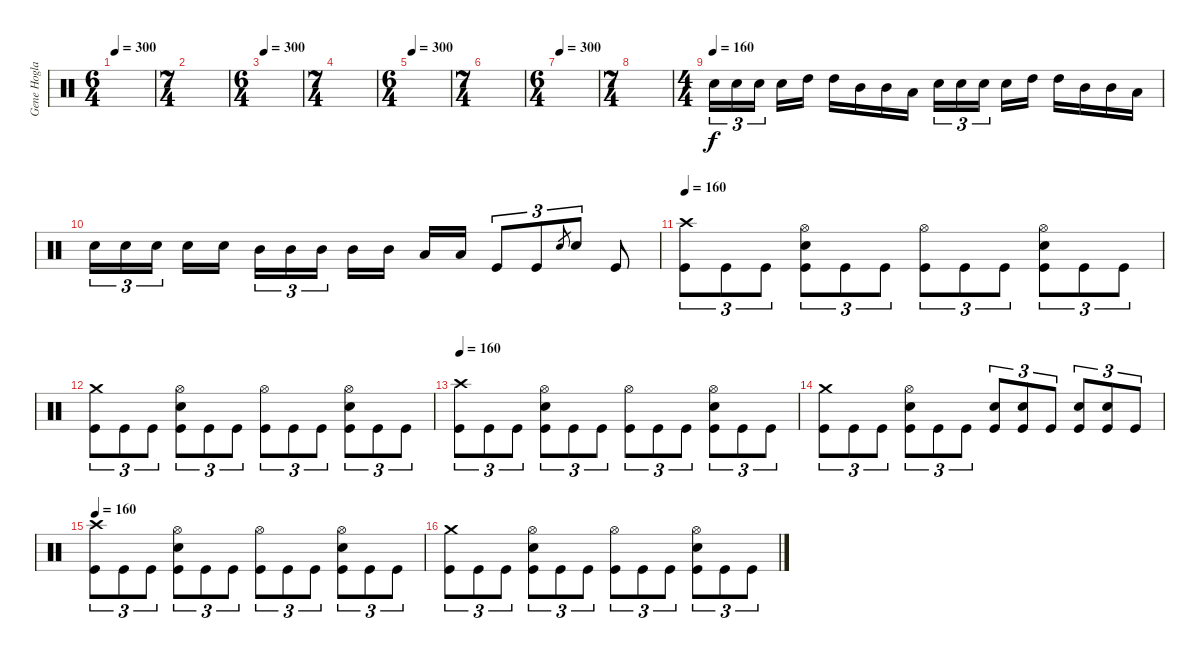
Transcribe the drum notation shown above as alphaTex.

\track ("Gene Hoglan" "Gene Hogla") {instrument percussion}
\staff {score}
\articulation defaults
\ts (6 4)
\tempo 300
\clef neutral
\ks c
|
\ts (7 4)
|
\ts (6 4)
\tempo 300
|
\ts (7 4)
|
\ts (6 4)
\tempo 300
|
\ts (7 4)
|
\ts (6 4)
\tempo 300
|
\ts (7 4)
|
\ts (4 4)
\tempo (160)
"Electric Snare (hit)".16{tu (3 2)} "Electric Snare (hit)".16{tu (3 2)} "Electric Snare (hit)".16{tu (3 2)} "Electric Snare (hit)".16 "High Tom (hit)".16 "High Tom (hit)".16 "Mid Tom (hit)".16 "Mid Tom (hit)".16 "Low Tom (hit)".16 "Electric Snare (hit)".16{tu (3 2)} "Electric Snare (hit)".16{tu (3 2)} "Electric Snare (hit)".16{tu (3 2)} "Electric Snare (hit)".16 "High Tom (hit)".16 "High Tom (hit)".16 "Mid Tom (hit)".16 "Mid Tom (hit)".16 "Low Tom (hit)".16 |
"Electric Snare (hit)".16{tu (3 2)} "Electric Snare (hit)".16{tu (3 2)} "Electric Snare (hit)".16{tu (3 2)} "Electric Snare (hit)".16 "Electric Snare (hit)".16 "Mid Tom (hit)".16{tu (3 2)} "Mid Tom (hit)".16{tu (3 2)} "Mid Tom (hit)".16{tu (3 2)} "Mid Tom (hit)".16 "Mid Tom (hit)".16 "Low Tom (hit)".16 "Low Tom (hit)".16 "Kick (hit)".8{tu (3 2)} "Kick (hit)".8{tu (3 2)} "Electric Snare (hit)".8{gr} "Electric Snare (hit)".8{tu (3 2)} "Kick (hit)".8 |
\tempo 160
("Crash high (hit)" "Kick (hit)").8{tu (3 2)} "Kick (hit)".8{tu (3 2)} "Kick (hit)".8{tu (3 2)} ("Hi-Hat (open)" "Electric Snare (hit)" "Kick (hit)").8{tu (3 2)} "Kick (hit)".8{tu (3 2)} "Kick (hit)".8{tu (3 2)} ("Hi-Hat (open)" "Kick (hit)").8{tu (3 2)} "Kick (hit)".8{tu (3 2)} "Kick (hit)".8{tu (3 2)} ("Hi-Hat (open)" "Electric Snare (hit)" "Kick (hit)").8{tu (3 2)} "Kick (hit)".8{tu (3 2)} "Kick (hit)".8{tu (3 2)} |
("Crash medium (hit)" "Kick (hit)").8{tu (3 2)} "Kick (hit)".8{tu (3 2)} "Kick (hit)".8{tu (3 2)} ("Hi-Hat (open)" "Electric Snare (hit)" "Kick (hit)").8{tu (3 2)} "Kick (hit)".8{tu (3 2)} "Kick (hit)".8{tu (3 2)} ("Hi-Hat (open)" "Kick (hit)").8{tu (3 2)} "Kick (hit)".8{tu (3 2)} "Kick (hit)".8{tu (3 2)} ("Hi-Hat (open)" "Electric Snare (hit)" "Kick (hit)").8{tu (3 2)} "Kick (hit)".8{tu (3 2)} "Kick (hit)".8{tu (3 2)} |
\tempo 160
("Crash high (hit)" "Kick (hit)").8{tu (3 2)} "Kick (hit)".8{tu (3 2)} "Kick (hit)".8{tu (3 2)} ("Hi-Hat (open)" "Electric Snare (hit)" "Kick (hit)").8{tu (3 2)} "Kick (hit)".8{tu (3 2)} "Kick (hit)".8{tu (3 2)} ("Hi-Hat (open)" "Kick (hit)").8{tu (3 2)} "Kick (hit)".8{tu (3 2)} "Kick (hit)".8{tu (3 2)} ("Hi-Hat (open)" "Electric Snare (hit)" "Kick (hit)").8{tu (3 2)} "Kick (hit)".8{tu (3 2)} "Kick (hit)".8{tu (3 2)} |
("Crash medium (hit)" "Kick (hit)").8{tu (3 2)} "Kick (hit)".8{tu (3 2)} "Kick (hit)".8{tu (3 2)} ("Hi-Hat (open)" "Electric Snare (hit)" "Kick (hit)").8{tu (3 2)} "Kick (hit)".8{tu (3 2)} "Kick (hit)".8{tu (3 2)} ("Electric Snare (hit)" "Kick (hit)").8{tu (3 2)} ("Electric Snare (hit)" "Kick (hit)").8{tu (3 2)} "Kick (hit)".8{tu (3 2)} ("Electric Snare (hit)" "Kick (hit)").8{tu (3 2)} ("Electric Snare (hit)" "Kick (hit)").8{tu (3 2)} "Kick (hit)".8{tu (3 2)} |
\tempo 160
("Crash high (hit)" "Kick (hit)").8{tu (3 2)} "Kick (hit)".8{tu (3 2)} "Kick (hit)".8{tu (3 2)} ("Hi-Hat (open)" "Electric Snare (hit)" "Kick (hit)").8{tu (3 2)} "Kick (hit)".8{tu (3 2)} "Kick (hit)".8{tu (3 2)} ("Hi-Hat (open)" "Kick (hit)").8{tu (3 2)} "Kick (hit)".8{tu (3 2)} "Kick (hit)".8{tu (3 2)} ("Hi-Hat (open)" "Electric Snare (hit)" "Kick (hit)").8{tu (3 2)} "Kick (hit)".8{tu (3 2)} "Kick (hit)".8{tu (3 2)} |
("Crash medium (hit)" "Kick (hit)").8{tu (3 2)} "Kick (hit)".8{tu (3 2)} "Kick (hit)".8{tu (3 2)} ("Hi-Hat (open)" "Electric Snare (hit)" "Kick (hit)").8{tu (3 2)} "Kick (hit)".8{tu (3 2)} "Kick (hit)".8{tu (3 2)} ("Hi-Hat (open)" "Kick (hit)").8{tu (3 2)} "Kick (hit)".8{tu (3 2)} "Kick (hit)".8{tu (3 2)} ("Hi-Hat (open)" "Electric Snare (hit)" "Kick (hit)").8{tu (3 2)} "Kick (hit)".8{tu (3 2)} "Kick (hit)".8{tu (3 2)}
